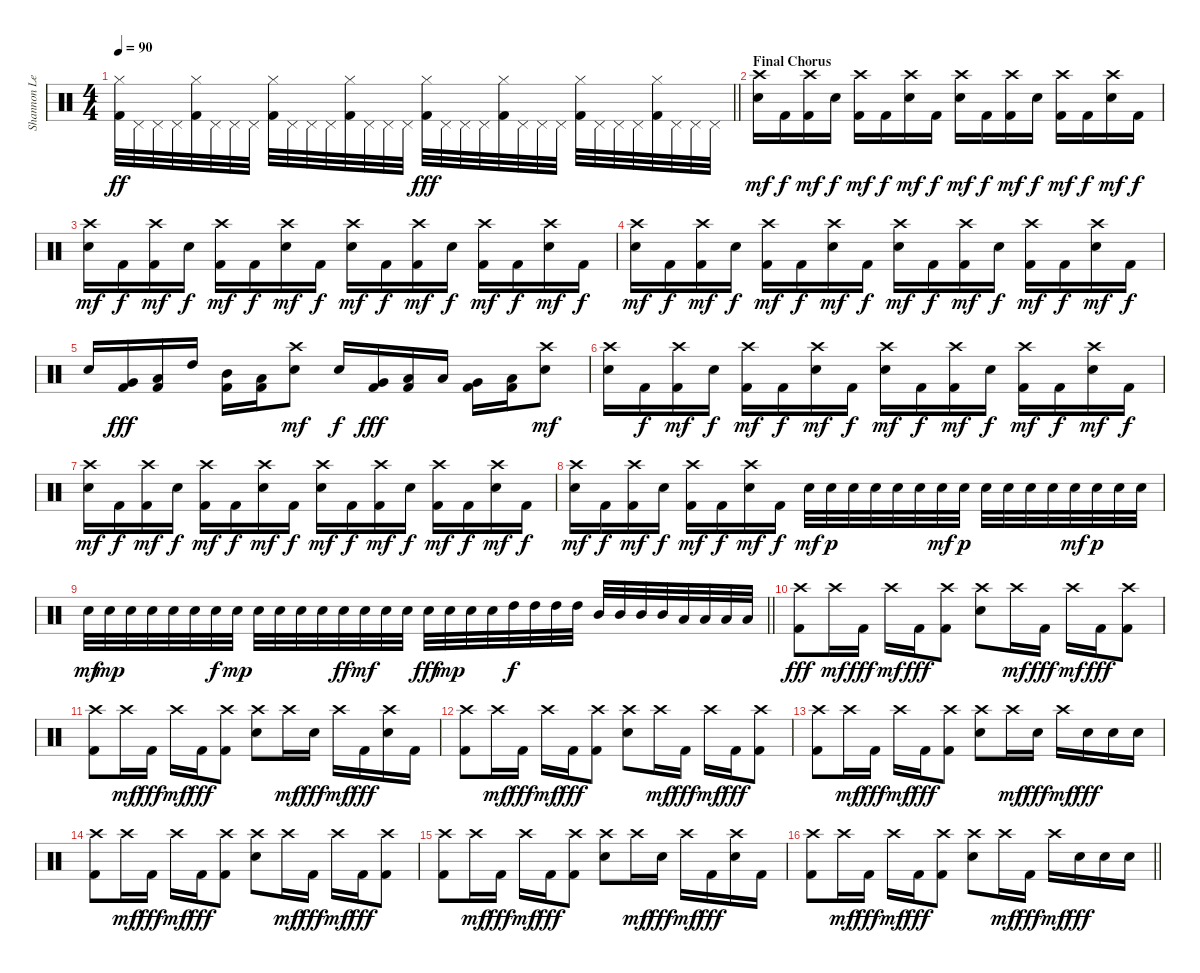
\track ("Shannon Leto - Drums" "Shannon Le") {instrument percussion}
\staff {score}
\articulation defaults
\ts (4 4)
\tempo 90
\clef neutral
\barLineRight lightlight
\ks c
("Hi-Hat (closed)" "Kick (hit) 2").32{dy ff} "Pedal Hi-Hat (hit)".32 "Pedal Hi-Hat (hit)".32 "Pedal Hi-Hat (hit)".32 ("Hi-Hat (closed)" "Kick (hit) 2").32 "Pedal Hi-Hat (hit)".32 "Pedal Hi-Hat (hit)".32 "Pedal Hi-Hat (hit)".32 ("Hi-Hat (closed)" "Kick (hit) 2").32 "Pedal Hi-Hat (hit)".32 "Pedal Hi-Hat (hit)".32 "Pedal Hi-Hat (hit)".32 ("Hi-Hat (closed)" "Kick (hit) 2").32 "Pedal Hi-Hat (hit)".32 "Pedal Hi-Hat (hit)".32 "Pedal Hi-Hat (hit)".32 ("Hi-Hat (closed)" "Kick (hit) 2").32{dy fff} "Pedal Hi-Hat (hit)".32 "Pedal Hi-Hat (hit)".32 "Pedal Hi-Hat (hit)".32 ("Hi-Hat (closed)" "Kick (hit) 2").32 "Pedal Hi-Hat (hit)".32 "Pedal Hi-Hat (hit)".32 "Pedal Hi-Hat (hit)".32 ("Hi-Hat (closed)" "Kick (hit) 2").32 "Pedal Hi-Hat (hit)".32 "Pedal Hi-Hat (hit)".32 "Pedal Hi-Hat (hit)".32 ("Hi-Hat (closed)" "Kick (hit) 2").32 "Pedal Hi-Hat (hit)".32 "Pedal Hi-Hat (hit)".32 "Pedal Hi-Hat (hit)".32 |
\section ("" "Final Chorus")
("Crash high (hit)" "Electric Snare (hit)").16{dy mf} "Kick (hit) 2".16{dy f} ("Crash high (hit)" "Kick (hit) 2").16{dy mf} "Electric Snare (hit)".16{dy f} ("Crash high (hit)" "Kick (hit) 2").16{dy mf} "Kick (hit) 2".16{dy f} ("Crash high (hit)" "Electric Snare (hit)").16{dy mf} "Kick (hit) 2".16{dy f} ("Crash high (hit)" "Electric Snare (hit)").16{dy mf} "Kick (hit) 2".16{dy f} ("Crash high (hit)" "Kick (hit) 2").16{dy mf} "Electric Snare (hit)".16{dy f} ("Crash high (hit)" "Kick (hit) 2").16{dy mf} "Kick (hit) 2".16{dy f} ("Crash high (hit)" "Electric Snare (hit)").16{dy mf} "Kick (hit) 2".16{dy f} |
("Crash high (hit)" "Electric Snare (hit)").16{dy mf} "Kick (hit) 2".16{dy f} ("Crash high (hit)" "Kick (hit) 2").16{dy mf} "Electric Snare (hit)".16{dy f} ("Crash high (hit)" "Kick (hit) 2").16{dy mf} "Kick (hit) 2".16{dy f} ("Crash high (hit)" "Electric Snare (hit)").16{dy mf} "Kick (hit) 2".16{dy f} ("Crash high (hit)" "Electric Snare (hit)").16{dy mf} "Kick (hit) 2".16{dy f} ("Crash high (hit)" "Kick (hit) 2").16{dy mf} "Electric Snare (hit)".16{dy f} ("Crash high (hit)" "Kick (hit) 2").16{dy mf} "Kick (hit) 2".16{dy f} ("Crash high (hit)" "Electric Snare (hit)").16{dy mf} "Kick (hit) 2".16{dy f} |
("Crash high (hit)" "Electric Snare (hit)").16{dy mf} "Kick (hit) 2".16{dy f} ("Crash high (hit)" "Kick (hit) 2").16{dy mf} "Electric Snare (hit)".16{dy f} ("Crash high (hit)" "Kick (hit) 2").16{dy mf} "Kick (hit) 2".16{dy f} ("Crash high (hit)" "Electric Snare (hit)").16{dy mf} "Kick (hit) 2".16{dy f} ("Crash high (hit)" "Electric Snare (hit)").16{dy mf} "Kick (hit) 2".16{dy f} ("Crash high (hit)" "Kick (hit) 2").16{dy mf} "Electric Snare (hit)".16{dy f} ("Crash high (hit)" "Kick (hit) 2").16{dy mf} "Kick (hit) 2".16{dy f} ("Crash high (hit)" "Electric Snare (hit)").16{dy mf} "Kick (hit) 2".16{dy f} |
"Electric Snare (hit)".16 ("Very Low Tom (hit)" "Kick (hit) 2").16{dy fff} ("Low Floor Tom (hit)" "Kick (hit) 2").16 "High Tom (hit)".16 ("Mid Tom (hit)" "Kick (hit) 2").16 ("Low Tom (hit)" "Kick (hit) 2").16 ("Crash high (hit)" "Electric Snare (hit)").8{dy mf} "Electric Snare (hit)".16{dy f} ("Very Low Tom (hit)" "Kick (hit) 2").16{dy fff} ("Low Floor Tom (hit)" "Kick (hit) 2").16 "Low Tom (hit)".16 ("Very Low Tom (hit)" "Kick (hit) 2").16 ("Low Floor Tom (hit)" "Kick (hit) 2").16 ("Crash high (hit)" "Electric Snare (hit)").8{dy mf} |
("Crash high (hit)" "Electric Snare (hit)").16 "Kick (hit) 2".16{dy f} ("Crash high (hit)" "Kick (hit) 2").16{dy mf} "Electric Snare (hit)".16{dy f} ("Crash high (hit)" "Kick (hit) 2").16{dy mf} "Kick (hit) 2".16{dy f} ("Crash high (hit)" "Electric Snare (hit)").16{dy mf} "Kick (hit) 2".16{dy f} ("Crash high (hit)" "Electric Snare (hit)").16{dy mf} "Kick (hit) 2".16{dy f} ("Crash high (hit)" "Kick (hit) 2").16{dy mf} "Electric Snare (hit)".16{dy f} ("Crash high (hit)" "Kick (hit) 2").16{dy mf} "Kick (hit) 2".16{dy f} ("Crash high (hit)" "Electric Snare (hit)").16{dy mf} "Kick (hit) 2".16{dy f} |
("Crash high (hit)" "Electric Snare (hit)").16{dy mf} "Kick (hit) 2".16{dy f} ("Crash high (hit)" "Kick (hit) 2").16{dy mf} "Electric Snare (hit)".16{dy f} ("Crash high (hit)" "Kick (hit) 2").16{dy mf} "Kick (hit) 2".16{dy f} ("Crash high (hit)" "Electric Snare (hit)").16{dy mf} "Kick (hit) 2".16{dy f} ("Crash high (hit)" "Electric Snare (hit)").16{dy mf} "Kick (hit) 2".16{dy f} ("Crash high (hit)" "Kick (hit) 2").16{dy mf} "Electric Snare (hit)".16{dy f} ("Crash high (hit)" "Kick (hit) 2").16{dy mf} "Kick (hit) 2".16{dy f} ("Crash high (hit)" "Electric Snare (hit)").16{dy mf} "Kick (hit) 2".16{dy f} |
("Crash high (hit)" "Electric Snare (hit)").16{dy mf} "Kick (hit) 2".16{dy f} ("Crash high (hit)" "Kick (hit) 2").16{dy mf} "Electric Snare (hit)".16{dy f} ("Crash high (hit)" "Kick (hit) 2").16{dy mf} "Kick (hit) 2".16{dy f} ("Crash high (hit)" "Electric Snare (hit)").16{dy mf} "Kick (hit) 2".16{dy f} "Electric Snare (hit)".32{dy mf} "Electric Snare (hit)".32{dy p} "Electric Snare (hit)".32 "Electric Snare (hit)".32 "Electric Snare (hit)".32 "Electric Snare (hit)".32 "Electric Snare (hit)".32{dy mf} "Electric Snare (hit)".32{dy p} "Electric Snare (hit)".32 "Electric Snare (hit)".32 "Electric Snare (hit)".32 "Electric Snare (hit)".32 "Electric Snare (hit)".32{dy mf} "Electric Snare (hit)".32{dy p} "Electric Snare (hit)".32 "Electric Snare (hit)".32 |
\barLineRight lightlight "Electric Snare (hit)".32{dy mf} "Electric Snare (hit)".32{dy mp} "Electric Snare (hit)".32 "Electric Snare (hit)".32 "Electric Snare (hit)".32 "Electric Snare (hit)".32 "Electric Snare (hit)".32{dy f} "Electric Snare (hit)".32{dy mp} "Electric Snare (hit)".32 "Electric Snare (hit)".32 "Electric Snare (hit)".32 "Electric Snare (hit)".32 "Electric Snare (hit)".32{dy ff} "Electric Snare (hit)".32{dy mf} "Electric Snare (hit)".32 "Electric Snare (hit)".32 "Electric Snare (hit)".32{dy fff} "Electric Snare (hit)".32{dy mp} "Electric Snare (hit)".32 "Electric Snare (hit)".32 "High Tom (hit)".32{dy f} "High Tom (hit)".32 "High Tom (hit)".32 "High Tom (hit)".32 "Mid Tom (hit)".32 "Mid Tom (hit)".32 "Mid Tom (hit)".32 "Mid Tom (hit)".32 "Low Tom (hit)".32 "Low Tom (hit)".32 "Low Tom (hit)".32 "Low Tom (hit)".32
|
\section ("" "")
("Crash high (hit)" "Kick (hit) 2").8{dy fff} "Crash high (hit)".16{dy mf} "Kick (hit) 2".16{dy fff} "Crash high (hit)".16{dy mf} "Kick (hit) 2".16{dy fff} ("Crash high (hit)" "Kick (hit) 2").8 ("Crash high (hit)" "Electric Snare (hit)").8 "Crash high (hit)".16{dy mf} "Kick (hit) 2".16{dy fff} "Crash high (hit)".16{dy mf} "Kick (hit) 2".16{dy fff} ("Crash high (hit)" "Kick (hit) 2").8 |
("Crash high (hit)" "Kick (hit) 2").8 "Crash high (hit)".16{dy mf} "Kick (hit) 2".16{dy fff} "Crash high (hit)".16{dy mf} "Kick (hit) 2".16{dy fff} ("Crash high (hit)" "Kick (hit) 2").8 ("Crash high (hit)" "Electric Snare (hit)").8 "Crash high (hit)".16{dy mf} "Electric Snare (hit)".16{dy fff} "Crash high (hit)".16{dy mf} "Kick (hit) 2".16{dy fff} ("Crash high (hit)" "Electric Snare (hit)").16 "Kick (hit) 2".16 |
("Crash high (hit)" "Kick (hit) 2").8 "Crash high (hit)".16{dy mf} "Kick (hit) 2".16{dy fff} "Crash high (hit)".16{dy mf} "Kick (hit) 2".16{dy fff} ("Crash high (hit)" "Kick (hit) 2").8 ("Crash high (hit)" "Electric Snare (hit)").8 "Crash high (hit)".16{dy mf} "Kick (hit) 2".16{dy fff} "Crash high (hit)".16{dy mf} "Kick (hit) 2".16{dy fff} ("Crash high (hit)" "Kick (hit) 2").8 |
("Crash high (hit)" "Kick (hit) 2").8 "Crash high (hit)".16{dy mf} "Kick (hit) 2".16{dy fff} "Crash high (hit)".16{dy mf} "Kick (hit) 2".16{dy fff} ("Crash high (hit)" "Kick (hit) 2").8 ("Crash high (hit)" "Electric Snare (hit)").8 "Crash high (hit)".16{dy mf} "Electric Snare (hit)".16{dy fff} "Crash high (hit)".16{dy mf} "Electric Snare (hit)".16{dy fff} "Electric Snare (hit)".16 "Electric Snare (hit)".16 |
("Crash high (hit)" "Kick (hit) 2").8 "Crash high (hit)".16{dy mf} "Kick (hit) 2".16{dy fff} "Crash high (hit)".16{dy mf} "Kick (hit) 2".16{dy fff} ("Crash high (hit)" "Kick (hit) 2").8 ("Crash high (hit)" "Electric Snare (hit)").8 "Crash high (hit)".16{dy mf} "Kick (hit) 2".16{dy fff} "Crash high (hit)".16{dy mf} "Kick (hit) 2".16{dy fff} ("Crash high (hit)" "Kick (hit) 2").8 |
("Crash high (hit)" "Kick (hit) 2").8 "Crash high (hit)".16{dy mf} "Kick (hit) 2".16{dy fff} "Crash high (hit)".16{dy mf} "Kick (hit) 2".16{dy fff} ("Crash high (hit)" "Kick (hit) 2").8 ("Crash high (hit)" "Electric Snare (hit)").8 "Crash high (hit)".16{dy mf} "Electric Snare (hit)".16{dy fff} "Crash high (hit)".16{dy mf} "Kick (hit) 2".16{dy fff} ("Crash high (hit)" "Electric Snare (hit)").16 "Kick (hit) 2".16 |
\barLineRight lightlight
("Crash high (hit)" "Kick (hit) 2").8 "Crash high (hit)".16{dy mf} "Kick (hit) 2".16{dy fff} "Crash high (hit)".16{dy mf} "Kick (hit) 2".16{dy fff} ("Crash high (hit)" "Kick (hit) 2").8 ("Crash high (hit)" "Electric Snare (hit)").8 "Crash high (hit)".16{dy mf} "Kick (hit) 2".16{dy fff} "Crash high (hit)".16{dy mf} "Electric Snare (hit)".16{dy fff} "Electric Snare (hit)".16 "Electric Snare (hit)".16
